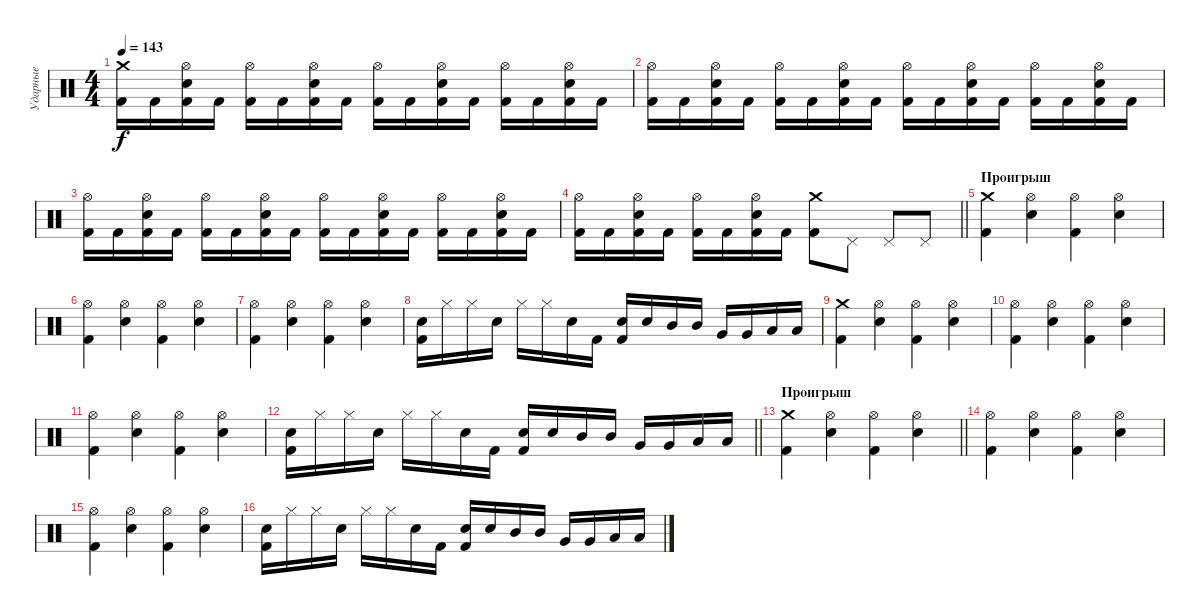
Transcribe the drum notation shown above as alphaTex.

\track ("Ударные" "Ударные") {instrument percussion}
\staff {score}
\articulation defaults
\ts (4 4)
\tempo 143
\clef neutral
\ks c
("Crash medium (hit)" "Kick (hit) 2").16{dy f} "Kick (hit) 2".16 ("Hi-Hat (open)" "Snare (hit) 2" "Kick (hit) 2").16 "Kick (hit) 2".16 ("Hi-Hat (open)" "Kick (hit) 2").16 "Kick (hit) 2".16 ("Hi-Hat (open)" "Snare (hit) 2" "Kick (hit) 2").16 "Kick (hit) 2".16 ("Hi-Hat (open)" "Kick (hit) 2").16 "Kick (hit) 2".16 ("Hi-Hat (open)" "Snare (hit) 2" "Kick (hit) 2").16 "Kick (hit) 2".16 ("Hi-Hat (open)" "Kick (hit) 2").16 "Kick (hit) 2".16 ("Hi-Hat (open)" "Snare (hit) 2" "Kick (hit) 2").16 "Kick (hit) 2".16 |
("Hi-Hat (open)" "Kick (hit) 2").16 "Kick (hit) 2".16 ("Hi-Hat (open)" "Snare (hit) 2" "Kick (hit) 2").16 "Kick (hit) 2".16 ("Hi-Hat (open)" "Kick (hit) 2").16 "Kick (hit) 2".16 ("Hi-Hat (open)" "Snare (hit) 2" "Kick (hit) 2").16 "Kick (hit) 2".16 ("Hi-Hat (open)" "Kick (hit) 2").16 "Kick (hit) 2".16 ("Hi-Hat (open)" "Snare (hit) 2" "Kick (hit) 2").16 "Kick (hit) 2".16 ("Hi-Hat (open)" "Kick (hit) 2").16 "Kick (hit) 2".16 ("Hi-Hat (open)" "Snare (hit) 2" "Kick (hit) 2").16 "Kick (hit) 2".16 |
("Hi-Hat (open)" "Kick (hit) 2").16 "Kick (hit) 2".16 ("Hi-Hat (open)" "Snare (hit) 2" "Kick (hit) 2").16 "Kick (hit) 2".16 ("Hi-Hat (open)" "Kick (hit) 2").16 "Kick (hit) 2".16 ("Hi-Hat (open)" "Snare (hit) 2" "Kick (hit) 2").16 "Kick (hit) 2".16 ("Hi-Hat (open)" "Kick (hit) 2").16 "Kick (hit) 2".16 ("Hi-Hat (open)" "Snare (hit) 2" "Kick (hit) 2").16 "Kick (hit) 2".16 ("Hi-Hat (open)" "Kick (hit) 2").16 "Kick (hit) 2".16 ("Hi-Hat (open)" "Snare (hit) 2" "Kick (hit) 2").16 "Kick (hit) 2".16 |
\barLineRight lightlight
("Hi-Hat (open)" "Kick (hit) 2").16 "Kick (hit) 2".16 ("Hi-Hat (open)" "Snare (hit) 2" "Kick (hit) 2").16 "Kick (hit) 2".16 ("Hi-Hat (open)" "Kick (hit) 2").16 "Kick (hit) 2".16 ("Hi-Hat (open)" "Snare (hit) 2" "Kick (hit) 2").16 "Kick (hit) 2".16 ("Crash medium (hit)" "Kick (hit) 2").8 "Pedal Hi-Hat (hit)".8 "Pedal Hi-Hat (hit)".8 "Pedal Hi-Hat (hit)".8 |
\section ("" "Проигрыш")
("Kick (hit) 2" "Crash medium (hit)").4 ("Hi-Hat (open)" "Snare (hit) 2").4 ("Hi-Hat (open)" "Kick (hit) 2").4 ("Hi-Hat (open)" "Snare (hit) 2").4 |
("Kick (hit) 2" "Hi-Hat (open)").4 ("Hi-Hat (open)" "Snare (hit) 2").4 ("Hi-Hat (open)" "Kick (hit) 2").4 ("Hi-Hat (open)" "Snare (hit) 2").4 |
("Kick (hit) 2" "Hi-Hat (open)").4 ("Hi-Hat (open)" "Snare (hit) 2").4 ("Hi-Hat (open)" "Kick (hit) 2").4 ("Hi-Hat (open)" "Snare (hit) 2").4 |
("Kick (hit) 2" "Snare (hit) 2").16 "Hi-Hat (closed)".16 "Hi-Hat (closed)".16 "Snare (hit) 2".16 "Hi-Hat (closed)".16 "Hi-Hat (closed)".16 "Snare (hit) 2".16 "Kick (hit) 2".16 ("Kick (hit) 2" "Snare (hit) 2").16 "Snare (hit) 2".16 "Mid Tom (hit)".16 "Mid Tom (hit)".16 "Very Low Tom (hit)".16 "Very Low Tom (hit)".16 "Low Floor Tom (hit)".16 "Low Floor Tom (hit)".16 |
("Kick (hit) 2" "Crash medium (hit)").4 ("Hi-Hat (open)" "Snare (hit) 2").4 ("Hi-Hat (open)" "Kick (hit) 2").4 ("Hi-Hat (open)" "Snare (hit) 2").4 |
("Kick (hit) 2" "Hi-Hat (open)").4 ("Hi-Hat (open)" "Snare (hit) 2").4 ("Hi-Hat (open)" "Kick (hit) 2").4 ("Hi-Hat (open)" "Snare (hit) 2").4 |
("Kick (hit) 2" "Hi-Hat (open)").4 ("Hi-Hat (open)" "Snare (hit) 2").4 ("Hi-Hat (open)" "Kick (hit) 2").4 ("Hi-Hat (open)" "Snare (hit) 2").4 |
\barLineRight lightlight
("Kick (hit) 2" "Snare (hit) 2").16 "Hi-Hat (closed)".16 "Hi-Hat (closed)".16 "Snare (hit) 2".16 "Hi-Hat (closed)".16 "Hi-Hat (closed)".16 "Snare (hit) 2".16 "Kick (hit) 2".16 ("Kick (hit) 2" "Snare (hit) 2").16 "Snare (hit) 2".16 "Mid Tom (hit)".16 "Mid Tom (hit)".16 "Very Low Tom (hit)".16 "Very Low Tom (hit)".16 "Low Floor Tom (hit)".16 "Low Floor Tom (hit)".16 |
\section ("" "Проигрыш")
\barLineRight lightlight
("Kick (hit) 2" "Crash medium (hit)").4 ("Hi-Hat (open)" "Snare (hit) 2").4 ("Hi-Hat (open)" "Kick (hit) 2").4 ("Hi-Hat (open)" "Snare (hit) 2").4 |
("Kick (hit) 2" "Hi-Hat (open)").4 ("Hi-Hat (open)" "Snare (hit) 2").4 ("Hi-Hat (open)" "Kick (hit) 2").4 ("Hi-Hat (open)" "Snare (hit) 2").4 |
("Kick (hit) 2" "Hi-Hat (open)").4 ("Hi-Hat (open)" "Snare (hit) 2").4 ("Hi-Hat (open)" "Kick (hit) 2").4 ("Hi-Hat (open)" "Snare (hit) 2").4 |
("Kick (hit) 2" "Snare (hit) 2").16 "Hi-Hat (closed)".16 "Hi-Hat (closed)".16 "Snare (hit) 2".16 "Hi-Hat (closed)".16 "Hi-Hat (closed)".16 "Snare (hit) 2".16 "Kick (hit) 2".16 ("Kick (hit) 2" "Snare (hit) 2").16 "Snare (hit) 2".16 "Mid Tom (hit)".16 "Mid Tom (hit)".16 "Very Low Tom (hit)".16 "Very Low Tom (hit)".16 "Low Floor Tom (hit)".16 "Low Floor Tom (hit)".16
